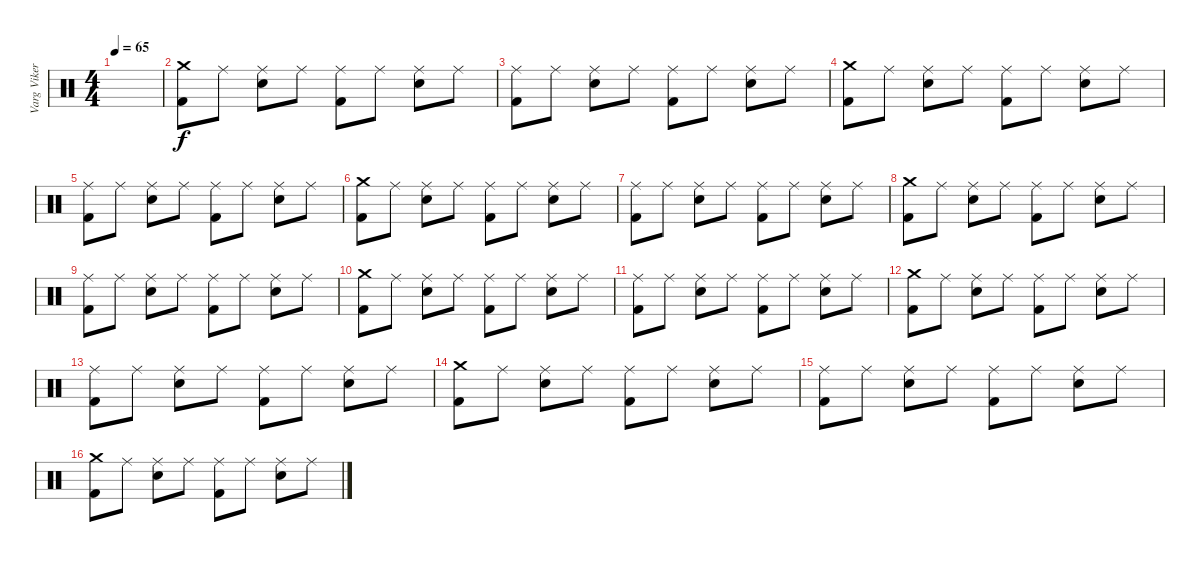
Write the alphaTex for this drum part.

\track ("Varg Vikernes" "Varg Viker") {instrument percussion}
\staff {score}
\articulation defaults
\ts (4 4)
\tempo 65
\clef neutral
\ks c
|
("Crash medium (hit)" "Kick (hit) 2").8 "Ride (middle)".8 ("Ride (middle)" "Snare (hit) 2").8 "Ride (middle)".8 ("Ride (middle)" "Kick (hit) 2").8 "Ride (middle)".8 ("Ride (middle)" "Snare (hit) 2").8 "Ride (middle)".8 |
("Ride (middle)" "Kick (hit) 2").8 "Ride (middle)".8 ("Ride (middle)" "Snare (hit) 2").8 "Ride (middle)".8 ("Ride (middle)" "Kick (hit) 2").8 "Ride (middle)".8 ("Ride (middle)" "Snare (hit) 2").8 "Ride (middle)".8 |
("Crash medium (hit)" "Kick (hit) 2").8 "Ride (middle)".8 ("Ride (middle)" "Snare (hit) 2").8 "Ride (middle)".8 ("Ride (middle)" "Kick (hit) 2").8 "Ride (middle)".8 ("Ride (middle)" "Snare (hit) 2").8 "Ride (middle)".8 |
("Ride (middle)" "Kick (hit) 2").8 "Ride (middle)".8 ("Ride (middle)" "Snare (hit) 2").8 "Ride (middle)".8 ("Ride (middle)" "Kick (hit) 2").8 "Ride (middle)".8 ("Ride (middle)" "Snare (hit) 2").8 "Ride (middle)".8 |
("Crash medium (hit)" "Kick (hit) 2").8 "Ride (middle)".8 ("Ride (middle)" "Snare (hit) 2").8 "Ride (middle)".8 ("Ride (middle)" "Kick (hit) 2").8 "Ride (middle)".8 ("Ride (middle)" "Snare (hit) 2").8 "Ride (middle)".8 |
("Ride (middle)" "Kick (hit) 2").8 "Ride (middle)".8 ("Ride (middle)" "Snare (hit) 2").8 "Ride (middle)".8 ("Ride (middle)" "Kick (hit) 2").8 "Ride (middle)".8 ("Ride (middle)" "Snare (hit) 2").8 "Ride (middle)".8 |
("Crash medium (hit)" "Kick (hit) 2").8 "Ride (middle)".8 ("Ride (middle)" "Snare (hit) 2").8 "Ride (middle)".8 ("Ride (middle)" "Kick (hit) 2").8 "Ride (middle)".8 ("Ride (middle)" "Snare (hit) 2").8 "Ride (middle)".8 |
("Ride (middle)" "Kick (hit) 2").8 "Ride (middle)".8 ("Ride (middle)" "Snare (hit) 2").8 "Ride (middle)".8 ("Ride (middle)" "Kick (hit) 2").8 "Ride (middle)".8 ("Ride (middle)" "Snare (hit) 2").8 "Ride (middle)".8 |
("Crash medium (hit)" "Kick (hit) 2").8 "Ride (middle)".8 ("Ride (middle)" "Snare (hit) 2").8 "Ride (middle)".8 ("Ride (middle)" "Kick (hit) 2").8 "Ride (middle)".8 ("Ride (middle)" "Snare (hit) 2").8 "Ride (middle)".8 |
("Ride (middle)" "Kick (hit) 2").8 "Ride (middle)".8 ("Ride (middle)" "Snare (hit) 2").8 "Ride (middle)".8 ("Ride (middle)" "Kick (hit) 2").8 "Ride (middle)".8 ("Ride (middle)" "Snare (hit) 2").8 "Ride (middle)".8 |
("Crash medium (hit)" "Kick (hit) 2").8 "Ride (middle)".8 ("Ride (middle)" "Snare (hit) 2").8 "Ride (middle)".8 ("Ride (middle)" "Kick (hit) 2").8 "Ride (middle)".8 ("Ride (middle)" "Snare (hit) 2").8 "Ride (middle)".8 |
("Ride (middle)" "Kick (hit) 2").8 "Ride (middle)".8 ("Ride (middle)" "Snare (hit) 2").8 "Ride (middle)".8 ("Ride (middle)" "Kick (hit) 2").8 "Ride (middle)".8 ("Ride (middle)" "Snare (hit) 2").8 "Ride (middle)".8 |
("Crash medium (hit)" "Kick (hit) 2").8 "Ride (middle)".8 ("Ride (middle)" "Snare (hit) 2").8 "Ride (middle)".8 ("Ride (middle)" "Kick (hit) 2").8 "Ride (middle)".8 ("Ride (middle)" "Snare (hit) 2").8 "Ride (middle)".8 |
("Ride (middle)" "Kick (hit) 2").8 "Ride (middle)".8 ("Ride (middle)" "Snare (hit) 2").8 "Ride (middle)".8 ("Ride (middle)" "Kick (hit) 2").8 "Ride (middle)".8 ("Ride (middle)" "Snare (hit) 2").8 "Ride (middle)".8 |
("Crash medium (hit)" "Kick (hit) 2").8 "Ride (middle)".8 ("Ride (middle)" "Snare (hit) 2").8 "Ride (middle)".8 ("Ride (middle)" "Kick (hit) 2").8 "Ride (middle)".8 ("Ride (middle)" "Snare (hit) 2").8 "Ride (middle)".8
